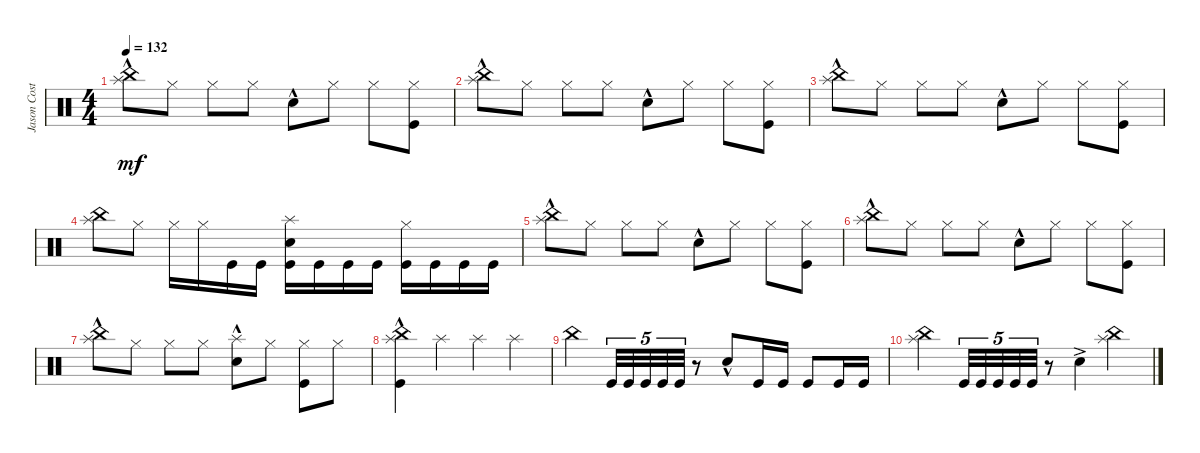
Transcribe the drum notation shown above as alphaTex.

\track ("Jason Costa" "Jason Cost") {instrument percussion}
\staff {score}
\articulation defaults
\ts (4 4)
\tempo 132
\clef neutral
\ks c
("China (hit)"{hac} "Splash (hit)").8{dy mf} "Hi-Hat (closed)".8 "Hi-Hat (closed)".8 "Hi-Hat (closed)".8 "Snare (hit) 2"{hac}.8 "Hi-Hat (closed)".8 "Hi-Hat (closed)".8 ("Hi-Hat (closed)" "Kick (hit)").8 |
("Splash (hit)" "China (hit)"{hac}).8 "Hi-Hat (closed)".8 "Hi-Hat (closed)".8 "Hi-Hat (closed)".8 "Snare (hit) 2"{hac}.8 "Hi-Hat (closed)".8 "Hi-Hat (closed)".8 ("Kick (hit)" "Hi-Hat (closed)").8 |
("Splash (hit)" "China (hit)"{hac}).8 "Hi-Hat (closed)".8 "Hi-Hat (closed)".8 "Hi-Hat (closed)".8 "Snare (hit) 2"{hac}.8 "Hi-Hat (closed)".8 "Hi-Hat (closed)".8 ("Kick (hit)" "Hi-Hat (closed)").8 |
("Splash (hit)" "China (hit)").8 "Hi-Hat (closed)".8 "Hi-Hat (closed)".16 "Hi-Hat (closed)".16 "Kick (hit)".16 "Kick (hit)".16 ("Snare (hit) 2" "Splash (hit)" "Kick (hit)").16 "Kick (hit)".16 "Kick (hit)".16 "Kick (hit)".16 ("Hi-Hat (closed)" "Kick (hit)").16 "Kick (hit)".16 "Kick (hit)".16 "Kick (hit)".16 |
("China (hit)"{hac} "Splash (hit)").8 "Hi-Hat (closed)".8 "Hi-Hat (closed)".8 "Hi-Hat (closed)".8 "Snare (hit) 2"{hac}.8 "Hi-Hat (closed)".8 "Hi-Hat (closed)".8 ("Hi-Hat (closed)" "Kick (hit)").8 |
("Splash (hit)" "China (hit)"{hac}).8 "Hi-Hat (closed)".8 "Hi-Hat (closed)".8 "Hi-Hat (closed)".8 "Snare (hit) 2"{hac}.8 "Hi-Hat (closed)".8 "Hi-Hat (closed)".8 ("Kick (hit)" "Hi-Hat (closed)").8 |
("Splash (hit)" "China (hit)"{hac}).8 "Hi-Hat (closed)".8 "Hi-Hat (closed)".8 "Hi-Hat (closed)".8 ("Snare (hit) 2" "Splash (hit)"{hac}).8 "Hi-Hat (closed)".8 ("Hi-Hat (closed)" "Kick (hit)").8 "Hi-Hat (closed)".8 |
("China (hit)" "Splash (hit)"{hac} "Kick (hit)").4 "Splash (hit)".4 "Splash (hit)".4 "Splash (hit)".4 |
"China (hit)".4 "Kick (hit)".32{tu (5 4)} "Kick (hit)".32{tu (5 4)} "Kick (hit)".32{tu (5 4)} "Kick (hit)".32{tu (5 4)} "Kick (hit)".32{tu (5 4)} r.8 "Snare (hit) 2"{hac}.8 "Kick (hit)".16 "Kick (hit)".16 "Kick (hit)".8 "Kick (hit)".16 "Kick (hit)".16 |
("China (hit)" "Splash (hit)").4 "Kick (hit)".32{tu (5 4)} "Kick (hit)".32{tu (5 4)} "Kick (hit)".32{tu (5 4)} "Kick (hit)".32{tu (5 4)} "Kick (hit)".32{tu (5 4)} r.8 "Snare (hit) 2"{ac}.4 ("China (hit)" "Splash (hit)").4
